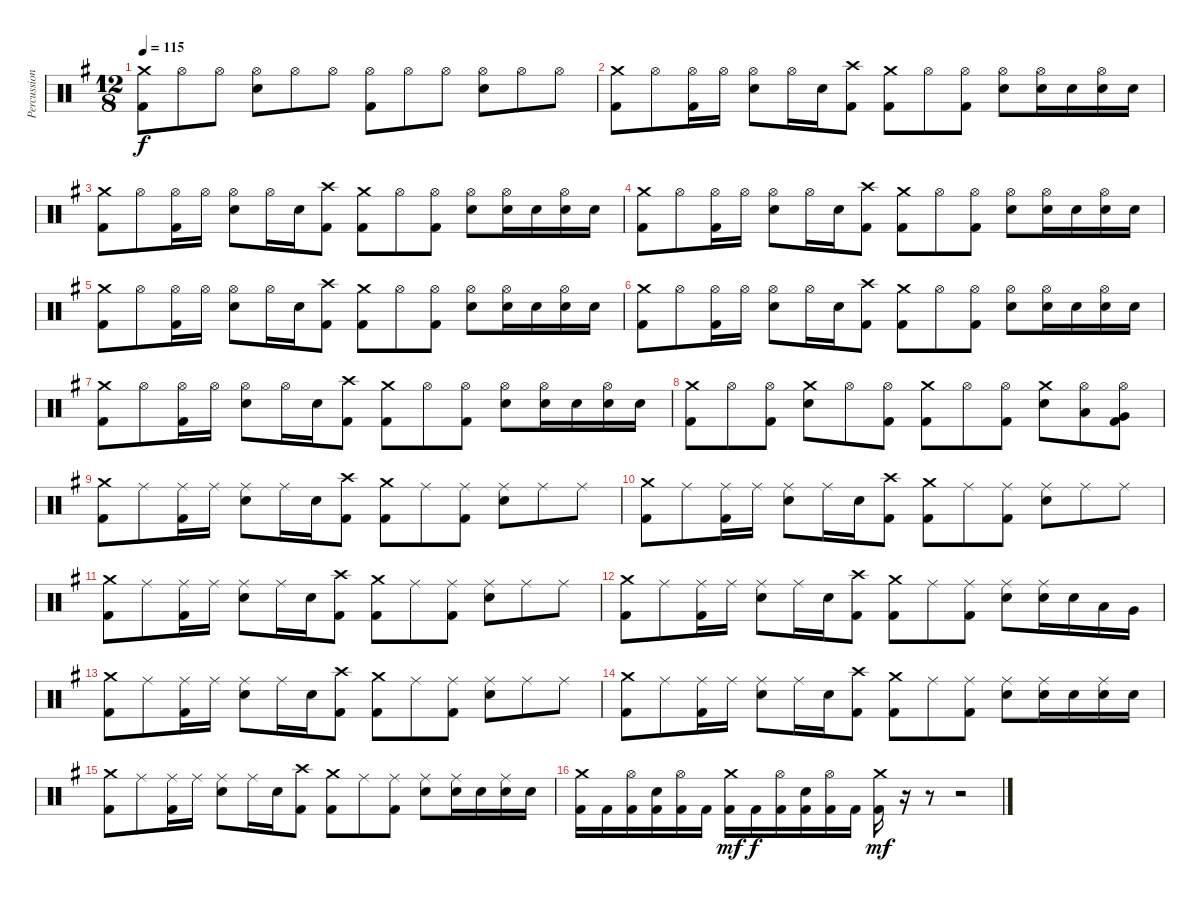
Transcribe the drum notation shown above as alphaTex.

\track ("Percussion" "Percussion") {instrument percussion}
\staff {score}
\articulation defaults
\ts (12 8)
\tempo 115
\clef neutral
\ks g
("Crash medium (hit)" "Kick (hit) 2").8{dy f} "Hi-Hat (open)".8 "Hi-Hat (open)".8 ("Hi-Hat (open)" "Snare (hit) 2").8 "Hi-Hat (open)".8 "Hi-Hat (open)".8 ("Hi-Hat (open)" "Kick (hit) 2").8 "Hi-Hat (open)".8 "Hi-Hat (open)".8 ("Hi-Hat (open)" "Snare (hit) 2").8 "Hi-Hat (open)".8 "Hi-Hat (open)".8 |
("Crash medium (hit)" "Kick (hit) 2").8 "Hi-Hat (open)".8 ("Hi-Hat (open)" "Kick (hit) 2").16 "Hi-Hat (open)".16 ("Hi-Hat (open)" "Snare (hit) 2").8 "Hi-Hat (open)".16 "Snare (hit) 2".16 ("Crash high (hit)" "Kick (hit) 2").8 ("Crash medium (hit)" "Kick (hit) 2").8 "Hi-Hat (open)".8 ("Hi-Hat (open)" "Kick (hit) 2").8 ("Hi-Hat (open)" "Snare (hit) 2").8 ("Hi-Hat (open)" "Snare (hit) 2").16 "Snare (hit) 2".16 ("Hi-Hat (open)" "Snare (hit) 2").16 "Snare (hit) 2".16 |
("Crash medium (hit)" "Kick (hit) 2").8 "Hi-Hat (open)".8 ("Hi-Hat (open)" "Kick (hit) 2").16 "Hi-Hat (open)".16 ("Hi-Hat (open)" "Snare (hit) 2").8 "Hi-Hat (open)".16 "Snare (hit) 2".16 ("Crash high (hit)" "Kick (hit) 2").8 ("Crash medium (hit)" "Kick (hit) 2").8 "Hi-Hat (open)".8 ("Hi-Hat (open)" "Kick (hit) 2").8 ("Hi-Hat (open)" "Snare (hit) 2").8 ("Hi-Hat (open)" "Snare (hit) 2").16 "Snare (hit) 2".16 ("Hi-Hat (open)" "Snare (hit) 2").16 "Snare (hit) 2".16 |
("Crash medium (hit)" "Kick (hit) 2").8 "Hi-Hat (open)".8 ("Hi-Hat (open)" "Kick (hit) 2").16 "Hi-Hat (open)".16 ("Hi-Hat (open)" "Snare (hit) 2").8 "Hi-Hat (open)".16 "Snare (hit) 2".16 ("Crash high (hit)" "Kick (hit) 2").8 ("Crash medium (hit)" "Kick (hit) 2").8 "Hi-Hat (open)".8 ("Hi-Hat (open)" "Kick (hit) 2").8 ("Hi-Hat (open)" "Snare (hit) 2").8 ("Hi-Hat (open)" "Snare (hit) 2").16 "Snare (hit) 2".16 ("Hi-Hat (open)" "Snare (hit) 2").16 "Snare (hit) 2".16 |
("Crash medium (hit)" "Kick (hit) 2").8 "Hi-Hat (open)".8 ("Hi-Hat (open)" "Kick (hit) 2").16 "Hi-Hat (open)".16 ("Hi-Hat (open)" "Snare (hit) 2").8 "Hi-Hat (open)".16 "Snare (hit) 2".16 ("Crash high (hit)" "Kick (hit) 2").8 ("Crash medium (hit)" "Kick (hit) 2").8 "Hi-Hat (open)".8 ("Hi-Hat (open)" "Kick (hit) 2").8 ("Hi-Hat (open)" "Snare (hit) 2").8 ("Hi-Hat (open)" "Snare (hit) 2").16 "Snare (hit) 2".16 ("Hi-Hat (open)" "Snare (hit) 2").16 "Snare (hit) 2".16 |
("Crash medium (hit)" "Kick (hit) 2").8 "Hi-Hat (open)".8 ("Hi-Hat (open)" "Kick (hit) 2").16 "Hi-Hat (open)".16 ("Hi-Hat (open)" "Snare (hit) 2").8 "Hi-Hat (open)".16 "Snare (hit) 2".16 ("Crash high (hit)" "Kick (hit) 2").8 ("Crash medium (hit)" "Kick (hit) 2").8 "Hi-Hat (open)".8 ("Hi-Hat (open)" "Kick (hit) 2").8 ("Hi-Hat (open)" "Snare (hit) 2").8 ("Hi-Hat (open)" "Snare (hit) 2").16 "Snare (hit) 2".16 ("Hi-Hat (open)" "Snare (hit) 2").16 "Snare (hit) 2".16 |
("Crash medium (hit)" "Kick (hit) 2").8 "Hi-Hat (open)".8 ("Hi-Hat (open)" "Kick (hit) 2").16 "Hi-Hat (open)".16 ("Hi-Hat (open)" "Snare (hit) 2").8 "Hi-Hat (open)".16 "Snare (hit) 2".16 ("Crash high (hit)" "Kick (hit) 2").8 ("Crash medium (hit)" "Kick (hit) 2").8 "Hi-Hat (open)".8 ("Hi-Hat (open)" "Kick (hit) 2").8 ("Hi-Hat (open)" "Snare (hit) 2").8 ("Hi-Hat (open)" "Snare (hit) 2").16 "Snare (hit) 2".16 ("Hi-Hat (open)" "Snare (hit) 2").16 "Snare (hit) 2".16 |
("Crash medium (hit)" "Kick (hit) 2").8 "Hi-Hat (open)".8 ("Hi-Hat (open)" "Kick (hit) 2").8 ("Crash medium (hit)" "Snare (hit) 2").8 "Hi-Hat (open)".8 ("Hi-Hat (open)" "Kick (hit) 2").8 ("Crash medium (hit)" "Kick (hit) 2").8 "Hi-Hat (open)".8 ("Hi-Hat (open)" "Kick (hit) 2").8 ("Crash medium (hit)" "Snare (hit) 2").8 ("Low Tom (hit)" "Hi-Hat (open)").8 ("Very Low Tom (hit)" "Hi-Hat (open)" "Kick (hit) 2").8 |
("Crash medium (hit)" "Kick (hit) 2").8 "Ride (middle)".8 ("Ride (middle)" "Kick (hit) 2").16 "Ride (middle)".16 ("Ride (middle)" "Electric Snare (hit)").8 "Ride (middle)".16 "Electric Snare (hit)".16 ("Crash high (hit)" "Kick (hit) 2").8 ("Crash medium (hit)" "Kick (hit) 2").8 "Ride (middle)".8 ("Ride (middle)" "Kick (hit) 2").8 ("Ride (middle)" "Electric Snare (hit)").8 "Ride (middle)".8 "Ride (middle)".8 |
("Crash medium (hit)" "Kick (hit) 2").8 "Ride (middle)".8 ("Ride (middle)" "Kick (hit) 2").16 "Ride (middle)".16 ("Ride (middle)" "Electric Snare (hit)").8 "Ride (middle)".16 "Electric Snare (hit)".16 ("Crash high (hit)" "Kick (hit) 2").8 ("Crash medium (hit)" "Kick (hit) 2").8 "Ride (middle)".8 ("Ride (middle)" "Kick (hit) 2").8 ("Ride (middle)" "Electric Snare (hit)").8 "Ride (middle)".8 "Ride (middle)".8 |
("Crash medium (hit)" "Kick (hit) 2").8 "Ride (middle)".8 ("Ride (middle)" "Kick (hit) 2").16 "Ride (middle)".16 ("Ride (middle)" "Electric Snare (hit)").8 "Ride (middle)".16 "Electric Snare (hit)".16 ("Crash high (hit)" "Kick (hit) 2").8 ("Crash medium (hit)" "Kick (hit) 2").8 "Ride (middle)".8 ("Ride (middle)" "Kick (hit) 2").8 ("Ride (middle)" "Electric Snare (hit)").8 "Ride (middle)".8 "Ride (middle)".8 |
("Crash medium (hit)" "Kick (hit) 2").8 "Ride (middle)".8 ("Ride (middle)" "Kick (hit) 2").16 "Ride (middle)".16 ("Ride (middle)" "Electric Snare (hit)").8 "Ride (middle)".16 "Electric Snare (hit)".16 ("Crash high (hit)" "Kick (hit) 2").8 ("Crash medium (hit)" "Kick (hit) 2").8 "Ride (middle)".8 ("Ride (middle)" "Kick (hit) 2").8 ("Ride (middle)" "Electric Snare (hit)").8 ("Ride (middle)" "Electric Snare (hit)").16 "Electric Snare (hit)".16 "Low Tom (hit)".16 "Very Low Tom (hit)".16 |
("Crash medium (hit)" "Kick (hit) 2").8 "Ride (middle)".8 ("Ride (middle)" "Kick (hit) 2").16 "Ride (middle)".16 ("Ride (middle)" "Electric Snare (hit)").8 "Ride (middle)".16 "Electric Snare (hit)".16 ("Crash high (hit)" "Kick (hit) 2").8 ("Crash medium (hit)" "Kick (hit) 2").8 "Ride (middle)".8 ("Ride (middle)" "Kick (hit) 2").8 ("Ride (middle)" "Electric Snare (hit)").8 "Ride (middle)".8 "Ride (middle)".8 |
("Crash medium (hit)" "Kick (hit) 2").8 "Ride (middle)".8 ("Ride (middle)" "Kick (hit) 2").16 "Ride (middle)".16 ("Ride (middle)" "Electric Snare (hit)").8 "Ride (middle)".16 "Electric Snare (hit)".16 ("Crash high (hit)" "Kick (hit) 2").8 ("Crash medium (hit)" "Kick (hit) 2").8 "Ride (middle)".8 ("Ride (middle)" "Kick (hit) 2").8 ("Ride (middle)" "Electric Snare (hit)").8 ("Ride (middle)" "Electric Snare (hit)").16 "Electric Snare (hit)".16 ("Ride (middle)" "Electric Snare (hit)").16 "Electric Snare (hit)".16 |
("Crash medium (hit)" "Kick (hit) 2").8 "Ride (middle)".8 ("Ride (middle)" "Kick (hit) 2").16 "Ride (middle)".16 ("Ride (middle)" "Electric Snare (hit)").8 "Ride (middle)".16 "Electric Snare (hit)".16 ("Crash high (hit)" "Kick (hit) 2").8 ("Crash medium (hit)" "Kick (hit) 2").8 "Ride (middle)".8 ("Ride (middle)" "Kick (hit) 2").8 ("Ride (middle)" "Electric Snare (hit)").8 ("Ride (middle)" "Electric Snare (hit)").16 "Electric Snare (hit)".16 ("Ride (middle)" "Electric Snare (hit)").16 "Electric Snare (hit)".16 |
("Crash medium (hit)" "Kick (hit) 2").16 "Kick (hit) 2".16 ("Hi-Hat (open)" "Kick (hit) 2").16 ("Snare (hit) 2" "Kick (hit) 2").16 ("Hi-Hat (open)" "Kick (hit) 2").16 "Kick (hit) 2".16 ("Crash medium (hit)" "Kick (hit) 2").16{dy mf} "Kick (hit) 2".16{dy f} ("Hi-Hat (open)" "Kick (hit) 2").16 ("Snare (hit) 2" "Kick (hit) 2").16 ("Hi-Hat (open)" "Kick (hit) 2").16 "Kick (hit) 2".16 ("Crash medium (hit)" "Kick (hit) 2").16{dy mf} r.16 r.8 r.2
